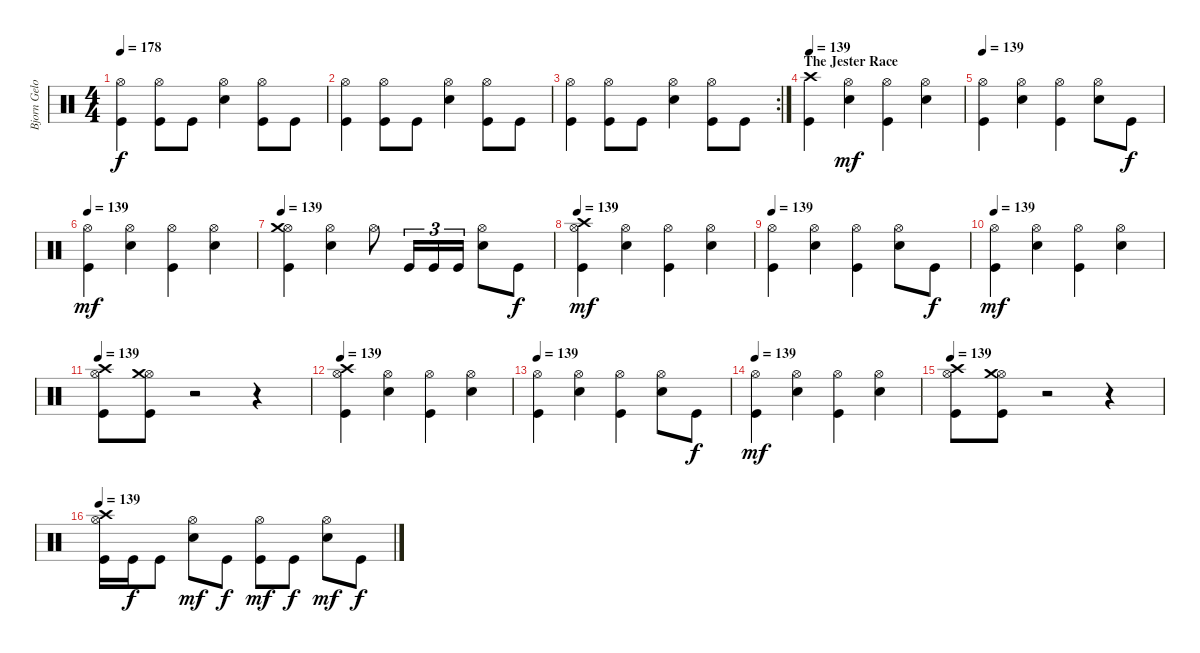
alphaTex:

\track ("Bjorn Gelotte-Drum" "Bjorn Gelo") {instrument percussion}
\staff {score}
\articulation defaults
\ts (4 4)
\tempo 178
\clef neutral
\ks c
("Hi-Hat (open)" "Kick (hit)").4{dy f} ("Hi-Hat (open)" "Kick (hit)").8 "Kick (hit)".8 ("Hi-Hat (open)" "Electric Snare (hit)").4 ("Hi-Hat (open)" "Kick (hit)").8 "Kick (hit)".8 |
("Hi-Hat (open)" "Kick (hit)").4 ("Hi-Hat (open)" "Kick (hit)").8 "Kick (hit)".8 ("Hi-Hat (open)" "Electric Snare (hit)").4 ("Hi-Hat (open)" "Kick (hit)").8 "Kick (hit)".8 |
\rc 2
("Hi-Hat (open)" "Kick (hit)").4 ("Hi-Hat (open)" "Kick (hit)").8 "Kick (hit)".8 ("Hi-Hat (open)" "Electric Snare (hit)").4 ("Hi-Hat (open)" "Kick (hit)").8 "Kick (hit)".8 |
\section ("" "The Jester Race")
\tempo 139
("Kick (hit)" "Crash high (hit)").4 ("Electric Snare (hit)" "Hi-Hat (open)").4{dy mf} ("Kick (hit)" "Hi-Hat (open)").4 ("Electric Snare (hit)" "Hi-Hat (open)").4 |
\tempo 139
("Kick (hit)" "Hi-Hat (open)").4 ("Electric Snare (hit)" "Hi-Hat (open)").4 ("Kick (hit)" "Hi-Hat (open)").4 ("Electric Snare (hit)" "Hi-Hat (open)").8 "Kick (hit)".8{dy f} |
\tempo 139
("Kick (hit)" "Hi-Hat (open)").4{dy mf} ("Electric Snare (hit)" "Hi-Hat (open)").4 ("Kick (hit)" "Hi-Hat (open)").4 ("Electric Snare (hit)" "Hi-Hat (open)").4 |
\tempo 139
("Kick (hit)" "Hi-Hat (open)" "Crash medium (hit)").4 ("Electric Snare (hit)" "Hi-Hat (open)").4 "Hi-Hat (open)".8 "Kick (hit)".16{tu (3 2)} "Kick (hit)".16{tu (3 2)} "Kick (hit)".16{tu (3 2)} ("Electric Snare (hit)" "Hi-Hat (open)").8 "Kick (hit)".8{dy f} |
\tempo 139
("Kick (hit)" "Hi-Hat (open)" "Crash high (hit)").4{dy mf} ("Electric Snare (hit)" "Hi-Hat (open)").4 ("Kick (hit)" "Hi-Hat (open)").4 ("Electric Snare (hit)" "Hi-Hat (open)").4 |
\tempo 139
("Kick (hit)" "Hi-Hat (open)").4 ("Electric Snare (hit)" "Hi-Hat (open)").4 ("Kick (hit)" "Hi-Hat (open)").4 ("Electric Snare (hit)" "Hi-Hat (open)").8 "Kick (hit)".8{dy f} |
\tempo 139
("Kick (hit)" "Hi-Hat (open)").4{dy mf} ("Electric Snare (hit)" "Hi-Hat (open)").4 ("Kick (hit)" "Hi-Hat (open)").4 ("Electric Snare (hit)" "Hi-Hat (open)").4 |
\tempo 139
("Kick (hit)" "Hi-Hat (open)" "Crash high (hit)").8 ("Kick (hit)" "Hi-Hat (open)" "Crash medium (hit)").8 r.2 r.4 |
\tempo 139
("Kick (hit)" "Hi-Hat (open)" "Crash high (hit)").4 ("Electric Snare (hit)" "Hi-Hat (open)").4 ("Kick (hit)" "Hi-Hat (open)").4 ("Electric Snare (hit)" "Hi-Hat (open)").4 |
\tempo 139
("Kick (hit)" "Hi-Hat (open)").4 ("Electric Snare (hit)" "Hi-Hat (open)").4 ("Kick (hit)" "Hi-Hat (open)").4 ("Electric Snare (hit)" "Hi-Hat (open)").8 "Kick (hit)".8{dy f} |
\tempo 139
("Kick (hit)" "Hi-Hat (open)").4{dy mf} ("Electric Snare (hit)" "Hi-Hat (open)").4 ("Kick (hit)" "Hi-Hat (open)").4 ("Electric Snare (hit)" "Hi-Hat (open)").4 |
\tempo 139
("Kick (hit)" "Hi-Hat (open)" "Crash high (hit)").8 ("Kick (hit)" "Hi-Hat (open)" "Crash medium (hit)").8 r.2 r.4 |
\tempo 139
("Kick (hit)" "Hi-Hat (open)" "Crash high (hit)").16 "Kick (hit)".16{dy f} "Kick (hit)".8 ("Electric Snare (hit)" "Hi-Hat (open)").8{dy mf} "Kick (hit)".8{dy f} ("Kick (hit)" "Hi-Hat (open)").8{dy mf} "Kick (hit)".8{dy f} ("Electric Snare (hit)" "Hi-Hat (open)").8{dy mf} "Kick (hit)".8{dy f}
